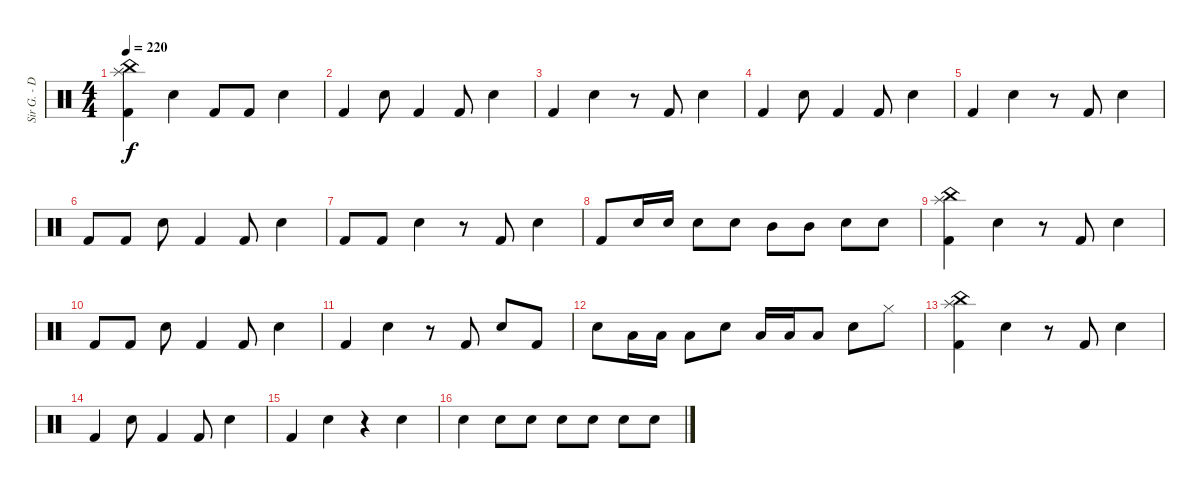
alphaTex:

\track ("Sir G. - Drums" "Sir G. - D") {instrument percussion}
\staff {score}
\articulation defaults
\ts (4 4)
\tempo 220
\clef neutral
\ks c
("China (hit)" "Splash (hit)" "Kick (hit) 2").4{dy f} "Snare (hit) 2".4 "Kick (hit) 2".8 "Kick (hit) 2".8 "Snare (hit) 2".4 |
"Kick (hit) 2".4 "Snare (hit) 2".8 "Kick (hit) 2".4 "Kick (hit) 2".8 "Snare (hit) 2".4 |
"Kick (hit) 2".4 "Snare (hit) 2".4 r.8 "Kick (hit) 2".8 "Snare (hit) 2".4 |
"Kick (hit) 2".4 "Snare (hit) 2".8 "Kick (hit) 2".4 "Kick (hit) 2".8 "Snare (hit) 2".4 |
"Kick (hit) 2".4 "Snare (hit) 2".4 r.8 "Kick (hit) 2".8 "Snare (hit) 2".4 |
"Kick (hit) 2".8 "Kick (hit) 2".8 "Snare (hit) 2".8 "Kick (hit) 2".4 "Kick (hit) 2".8 "Snare (hit) 2".4 |
"Kick (hit) 2".8 "Kick (hit) 2".8 "Snare (hit) 2".4 r.8 "Kick (hit) 2".8 "Snare (hit) 2".4 |
"Kick (hit) 2".8 "Snare (hit) 2".16 "Snare (hit) 2".16 "Snare (hit) 2".8 "Snare (hit) 2".8 "Mid Tom (hit)".8 "Mid Tom (hit)".8 "Snare (hit) 2".8 "Snare (hit) 2".8 |
("China (hit)" "Splash (hit)" "Kick (hit) 2").4 "Snare (hit) 2".4 r.8 "Kick (hit) 2".8 "Snare (hit) 2".4 |
"Kick (hit) 2".8 "Kick (hit) 2".8 "Snare (hit) 2".8 "Kick (hit) 2".4 "Kick (hit) 2".8 "Snare (hit) 2".4 |
"Kick (hit) 2".4 "Snare (hit) 2".4 r.8 "Kick (hit) 2".8 "Snare (hit) 2".8 "Kick (hit) 2".8 |
"Snare (hit) 2".8 "Low Tom (hit)".16 "Low Tom (hit)".16 "Low Tom (hit)".8 "Snare (hit) 2".8 "Low Tom (hit)".16 "Low Tom (hit)".16 "Low Tom (hit)".8 "Snare (hit) 2".8 "Hi-Hat (closed)".8 |
("China (hit)" "Splash (hit)" "Kick (hit) 2").4 "Snare (hit) 2".4 r.8 "Kick (hit) 2".8 "Snare (hit) 2".4 |
"Kick (hit) 2".4 "Snare (hit) 2".8 "Kick (hit) 2".4 "Kick (hit) 2".8 "Snare (hit) 2".4 |
"Kick (hit) 2".4 "Snare (hit) 2".4 r.4 "Snare (hit) 2".4 |
"Snare (hit) 2".4 "Snare (hit) 2".8 "Snare (hit) 2".8 "Snare (hit) 2".8 "Snare (hit) 2".8 "Snare (hit) 2".8 "Snare (hit) 2".8
